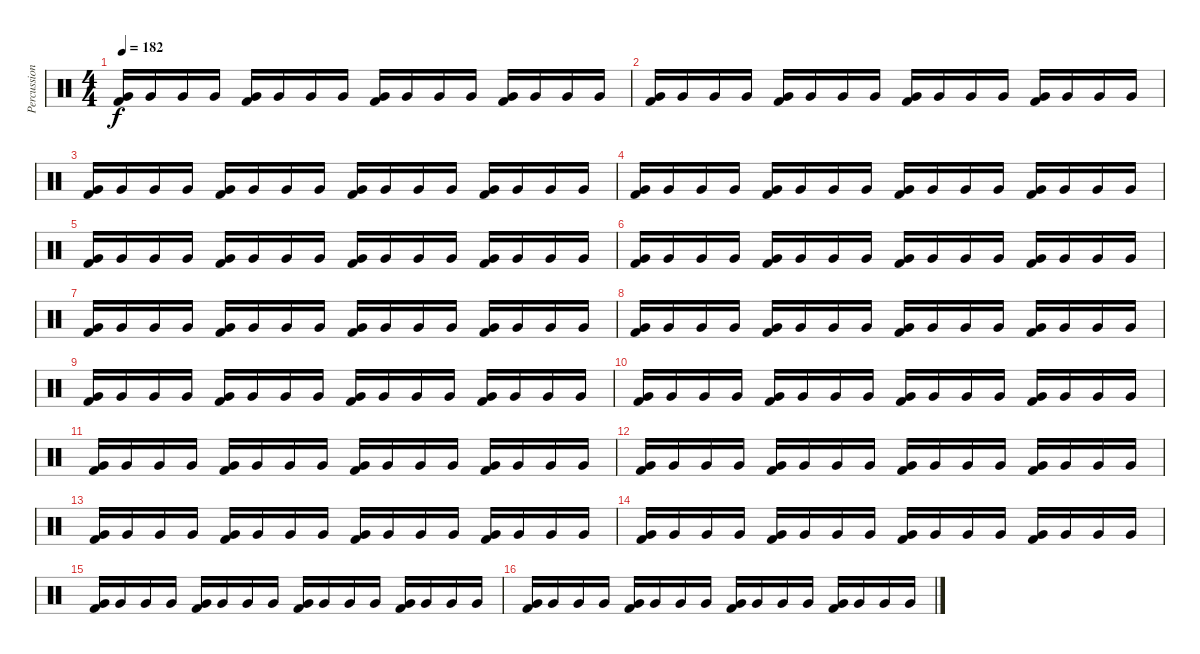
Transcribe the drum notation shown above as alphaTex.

\track ("Percussion" "Percussion") {instrument percussion}
\staff {score}
\articulation defaults
\ts (4 4)
\tempo 182
\clef neutral
\ks c
("Very Low Tom (hit)" "Kick (hit) 2").16{dy f} "Very Low Tom (hit)".16 "Very Low Tom (hit)".16 "Very Low Tom (hit)".16 ("Very Low Tom (hit)" "Kick (hit) 2").16 "Very Low Tom (hit)".16 "Very Low Tom (hit)".16 "Very Low Tom (hit)".16 ("Very Low Tom (hit)" "Kick (hit) 2").16 "Very Low Tom (hit)".16 "Very Low Tom (hit)".16 "Very Low Tom (hit)".16 ("Very Low Tom (hit)" "Kick (hit) 2").16 "Very Low Tom (hit)".16 "Very Low Tom (hit)".16 "Very Low Tom (hit)".16 |
("Very Low Tom (hit)" "Kick (hit) 2").16 "Very Low Tom (hit)".16 "Very Low Tom (hit)".16 "Very Low Tom (hit)".16 ("Very Low Tom (hit)" "Kick (hit) 2").16 "Very Low Tom (hit)".16 "Very Low Tom (hit)".16 "Very Low Tom (hit)".16 ("Very Low Tom (hit)" "Kick (hit) 2").16 "Very Low Tom (hit)".16 "Very Low Tom (hit)".16 "Very Low Tom (hit)".16 ("Very Low Tom (hit)" "Kick (hit) 2").16 "Very Low Tom (hit)".16 "Very Low Tom (hit)".16 "Very Low Tom (hit)".16 |
("Very Low Tom (hit)" "Kick (hit) 2").16 "Very Low Tom (hit)".16 "Very Low Tom (hit)".16 "Very Low Tom (hit)".16 ("Very Low Tom (hit)" "Kick (hit) 2").16 "Very Low Tom (hit)".16 "Very Low Tom (hit)".16 "Very Low Tom (hit)".16 ("Very Low Tom (hit)" "Kick (hit) 2").16 "Very Low Tom (hit)".16 "Very Low Tom (hit)".16 "Very Low Tom (hit)".16 ("Very Low Tom (hit)" "Kick (hit) 2").16 "Very Low Tom (hit)".16 "Very Low Tom (hit)".16 "Very Low Tom (hit)".16 |
("Very Low Tom (hit)" "Kick (hit) 2").16 "Very Low Tom (hit)".16 "Very Low Tom (hit)".16 "Very Low Tom (hit)".16 ("Very Low Tom (hit)" "Kick (hit) 2").16 "Very Low Tom (hit)".16 "Very Low Tom (hit)".16 "Very Low Tom (hit)".16 ("Very Low Tom (hit)" "Kick (hit) 2").16 "Very Low Tom (hit)".16 "Very Low Tom (hit)".16 "Very Low Tom (hit)".16 ("Very Low Tom (hit)" "Kick (hit) 2").16 "Very Low Tom (hit)".16 "Very Low Tom (hit)".16 "Very Low Tom (hit)".16 |
("Very Low Tom (hit)" "Kick (hit) 2").16 "Very Low Tom (hit)".16 "Very Low Tom (hit)".16 "Very Low Tom (hit)".16 ("Very Low Tom (hit)" "Kick (hit) 2").16 "Very Low Tom (hit)".16 "Very Low Tom (hit)".16 "Very Low Tom (hit)".16 ("Very Low Tom (hit)" "Kick (hit) 2").16 "Very Low Tom (hit)".16 "Very Low Tom (hit)".16 "Very Low Tom (hit)".16 ("Very Low Tom (hit)" "Kick (hit) 2").16 "Very Low Tom (hit)".16 "Very Low Tom (hit)".16 "Very Low Tom (hit)".16 |
("Very Low Tom (hit)" "Kick (hit) 2").16 "Very Low Tom (hit)".16 "Very Low Tom (hit)".16 "Very Low Tom (hit)".16 ("Very Low Tom (hit)" "Kick (hit) 2").16 "Very Low Tom (hit)".16 "Very Low Tom (hit)".16 "Very Low Tom (hit)".16 ("Very Low Tom (hit)" "Kick (hit) 2").16 "Very Low Tom (hit)".16 "Very Low Tom (hit)".16 "Very Low Tom (hit)".16 ("Very Low Tom (hit)" "Kick (hit) 2").16 "Very Low Tom (hit)".16 "Very Low Tom (hit)".16 "Very Low Tom (hit)".16 |
("Very Low Tom (hit)" "Kick (hit) 2").16 "Very Low Tom (hit)".16 "Very Low Tom (hit)".16 "Very Low Tom (hit)".16 ("Very Low Tom (hit)" "Kick (hit) 2").16 "Very Low Tom (hit)".16 "Very Low Tom (hit)".16 "Very Low Tom (hit)".16 ("Very Low Tom (hit)" "Kick (hit) 2").16 "Very Low Tom (hit)".16 "Very Low Tom (hit)".16 "Very Low Tom (hit)".16 ("Very Low Tom (hit)" "Kick (hit) 2").16 "Very Low Tom (hit)".16 "Very Low Tom (hit)".16 "Very Low Tom (hit)".16 |
("Very Low Tom (hit)" "Kick (hit) 2").16 "Very Low Tom (hit)".16 "Very Low Tom (hit)".16 "Very Low Tom (hit)".16 ("Very Low Tom (hit)" "Kick (hit) 2").16 "Very Low Tom (hit)".16 "Very Low Tom (hit)".16 "Very Low Tom (hit)".16 ("Very Low Tom (hit)" "Kick (hit) 2").16 "Very Low Tom (hit)".16 "Very Low Tom (hit)".16 "Very Low Tom (hit)".16 ("Very Low Tom (hit)" "Kick (hit) 2").16 "Very Low Tom (hit)".16 "Very Low Tom (hit)".16 "Very Low Tom (hit)".16 |
("Very Low Tom (hit)" "Kick (hit) 2").16 "Very Low Tom (hit)".16 "Very Low Tom (hit)".16 "Very Low Tom (hit)".16 ("Very Low Tom (hit)" "Kick (hit) 2").16 "Very Low Tom (hit)".16 "Very Low Tom (hit)".16 "Very Low Tom (hit)".16 ("Very Low Tom (hit)" "Kick (hit) 2").16 "Very Low Tom (hit)".16 "Very Low Tom (hit)".16 "Very Low Tom (hit)".16 ("Very Low Tom (hit)" "Kick (hit) 2").16 "Very Low Tom (hit)".16 "Very Low Tom (hit)".16 "Very Low Tom (hit)".16 |
("Very Low Tom (hit)" "Kick (hit) 2").16 "Very Low Tom (hit)".16 "Very Low Tom (hit)".16 "Very Low Tom (hit)".16 ("Very Low Tom (hit)" "Kick (hit) 2").16 "Very Low Tom (hit)".16 "Very Low Tom (hit)".16 "Very Low Tom (hit)".16 ("Very Low Tom (hit)" "Kick (hit) 2").16 "Very Low Tom (hit)".16 "Very Low Tom (hit)".16 "Very Low Tom (hit)".16 ("Very Low Tom (hit)" "Kick (hit) 2").16 "Very Low Tom (hit)".16 "Very Low Tom (hit)".16 "Very Low Tom (hit)".16 |
("Very Low Tom (hit)" "Kick (hit) 2").16 "Very Low Tom (hit)".16 "Very Low Tom (hit)".16 "Very Low Tom (hit)".16 ("Very Low Tom (hit)" "Kick (hit) 2").16 "Very Low Tom (hit)".16 "Very Low Tom (hit)".16 "Very Low Tom (hit)".16 ("Very Low Tom (hit)" "Kick (hit) 2").16 "Very Low Tom (hit)".16 "Very Low Tom (hit)".16 "Very Low Tom (hit)".16 ("Very Low Tom (hit)" "Kick (hit) 2").16 "Very Low Tom (hit)".16 "Very Low Tom (hit)".16 "Very Low Tom (hit)".16 |
("Very Low Tom (hit)" "Kick (hit) 2").16 "Very Low Tom (hit)".16 "Very Low Tom (hit)".16 "Very Low Tom (hit)".16 ("Very Low Tom (hit)" "Kick (hit) 2").16 "Very Low Tom (hit)".16 "Very Low Tom (hit)".16 "Very Low Tom (hit)".16 ("Very Low Tom (hit)" "Kick (hit) 2").16 "Very Low Tom (hit)".16 "Very Low Tom (hit)".16 "Very Low Tom (hit)".16 ("Very Low Tom (hit)" "Kick (hit) 2").16 "Very Low Tom (hit)".16 "Very Low Tom (hit)".16 "Very Low Tom (hit)".16 |
("Very Low Tom (hit)" "Kick (hit) 2").16 "Very Low Tom (hit)".16 "Very Low Tom (hit)".16 "Very Low Tom (hit)".16 ("Very Low Tom (hit)" "Kick (hit) 2").16 "Very Low Tom (hit)".16 "Very Low Tom (hit)".16 "Very Low Tom (hit)".16 ("Very Low Tom (hit)" "Kick (hit) 2").16 "Very Low Tom (hit)".16 "Very Low Tom (hit)".16 "Very Low Tom (hit)".16 ("Very Low Tom (hit)" "Kick (hit) 2").16 "Very Low Tom (hit)".16 "Very Low Tom (hit)".16 "Very Low Tom (hit)".16 |
("Very Low Tom (hit)" "Kick (hit) 2").16 "Very Low Tom (hit)".16 "Very Low Tom (hit)".16 "Very Low Tom (hit)".16 ("Very Low Tom (hit)" "Kick (hit) 2").16 "Very Low Tom (hit)".16 "Very Low Tom (hit)".16 "Very Low Tom (hit)".16 ("Very Low Tom (hit)" "Kick (hit) 2").16 "Very Low Tom (hit)".16 "Very Low Tom (hit)".16 "Very Low Tom (hit)".16 ("Very Low Tom (hit)" "Kick (hit) 2").16 "Very Low Tom (hit)".16 "Very Low Tom (hit)".16 "Very Low Tom (hit)".16 |
("Very Low Tom (hit)" "Kick (hit) 2").16 "Very Low Tom (hit)".16 "Very Low Tom (hit)".16 "Very Low Tom (hit)".16 ("Very Low Tom (hit)" "Kick (hit) 2").16 "Very Low Tom (hit)".16 "Very Low Tom (hit)".16 "Very Low Tom (hit)".16 ("Very Low Tom (hit)" "Kick (hit) 2").16 "Very Low Tom (hit)".16 "Very Low Tom (hit)".16 "Very Low Tom (hit)".16 ("Very Low Tom (hit)" "Kick (hit) 2").16 "Very Low Tom (hit)".16 "Very Low Tom (hit)".16 "Very Low Tom (hit)".16 |
("Very Low Tom (hit)" "Kick (hit) 2").16 "Very Low Tom (hit)".16 "Very Low Tom (hit)".16 "Very Low Tom (hit)".16 ("Very Low Tom (hit)" "Kick (hit) 2").16 "Very Low Tom (hit)".16 "Very Low Tom (hit)".16 "Very Low Tom (hit)".16 ("Very Low Tom (hit)" "Kick (hit) 2").16 "Very Low Tom (hit)".16 "Very Low Tom (hit)".16 "Very Low Tom (hit)".16 ("Very Low Tom (hit)" "Kick (hit) 2").16 "Very Low Tom (hit)".16 "Very Low Tom (hit)".16 "Very Low Tom (hit)".16
